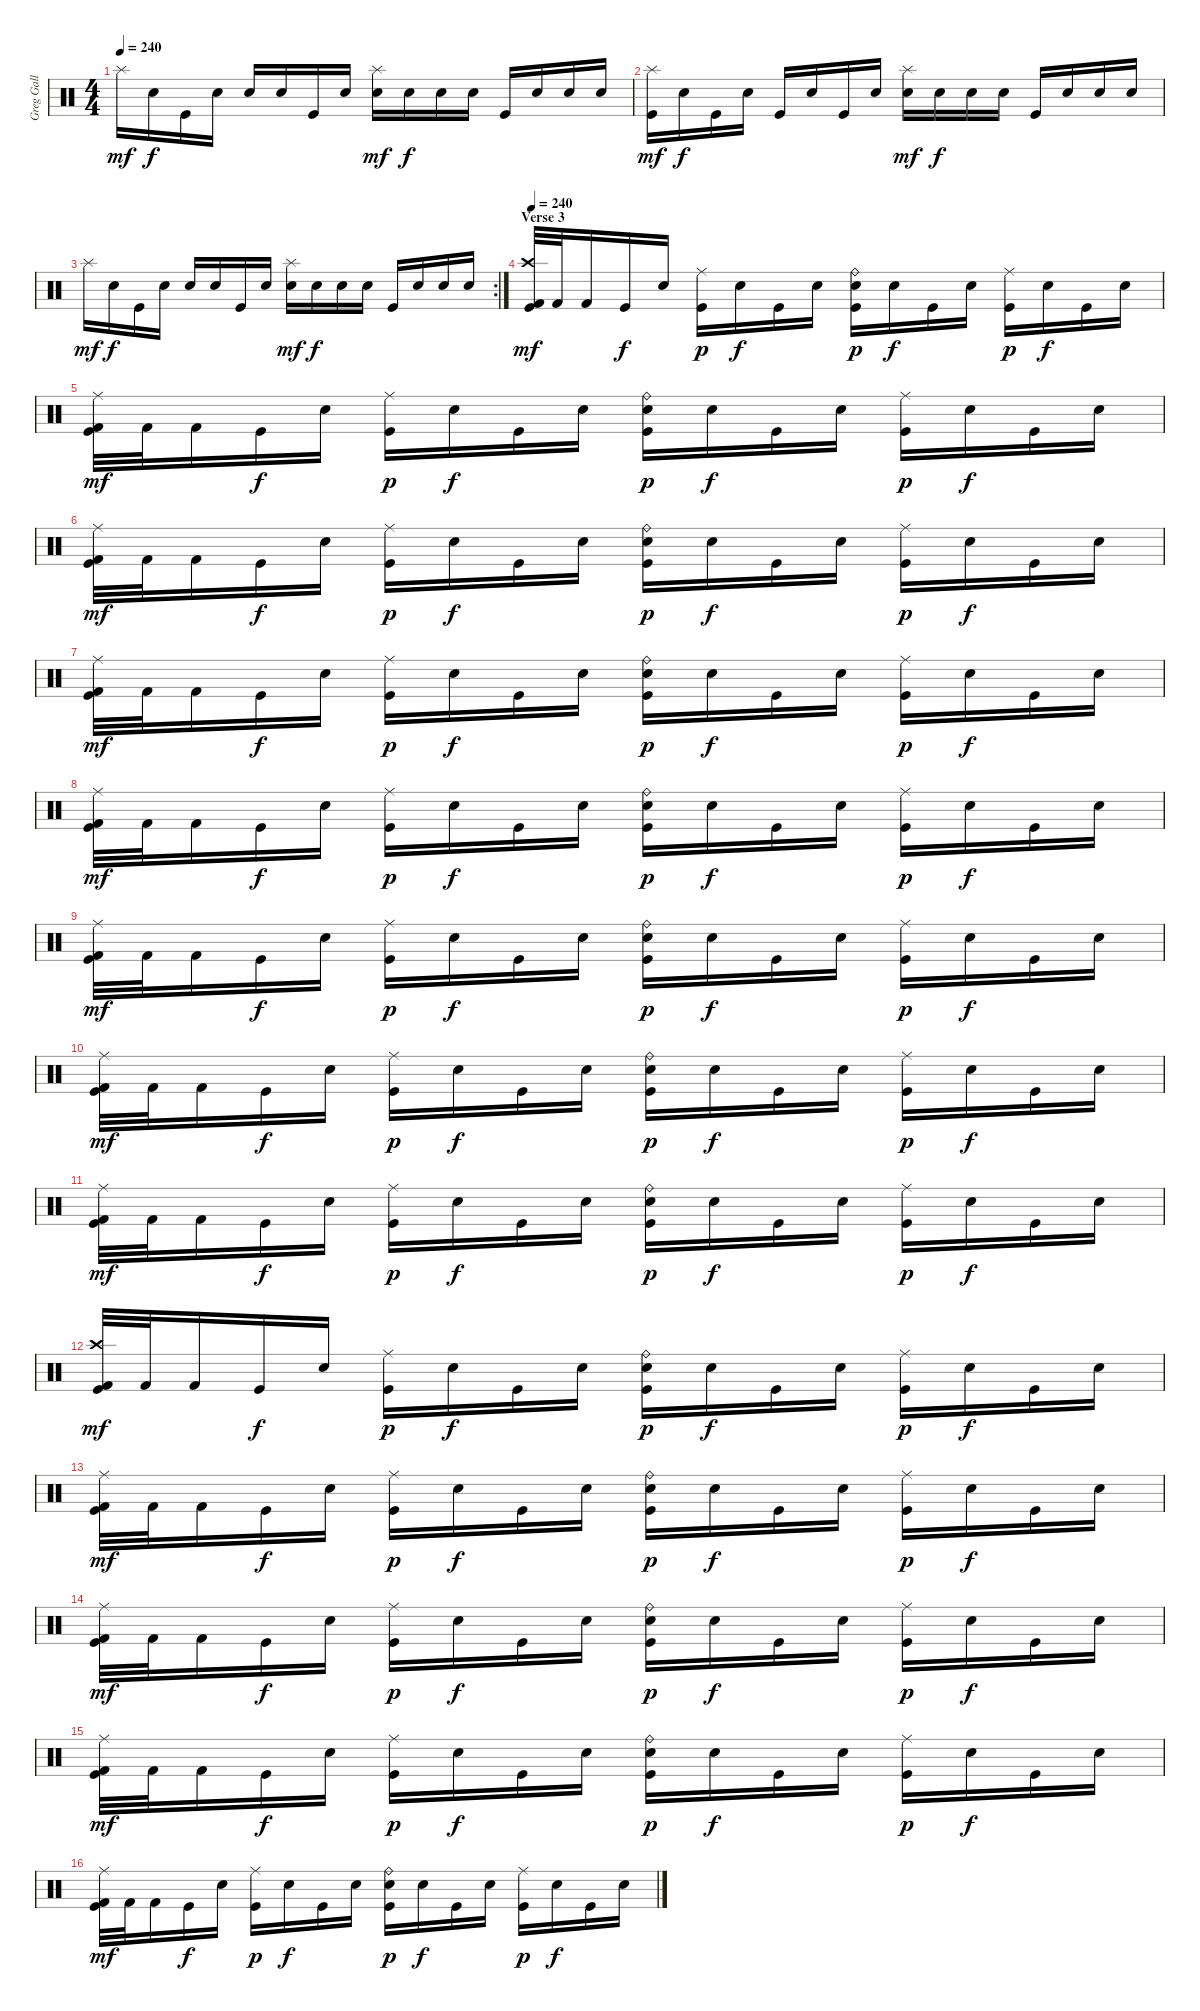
\track ("Greg Gall - Drums" "Greg Gall ") {instrument percussion}
\staff {score}
\articulation defaults
\ts (4 4)
\tempo 240
\clef neutral
\ks c "Splash (hit)".16{dy mf} "Snare (hit)".16{dy f} "Kick (hit)".16 "Snare (hit)".16 "Snare (hit)".16 "Snare (hit)".16 "Kick (hit)".16 "Snare (hit)".16
("Splash (hit)" "Electric Snare (hit)").16{dy mf} "Snare (hit)".16{dy f} "Snare (hit)".16 "Snare (hit)".16 "Kick (hit)".16 "Snare (hit)".16 "Snare (hit)".16 "Snare (hit)".16 |
("Splash (hit)" "Kick (hit)").16{dy mf} "Snare (hit)".16{dy f} "Kick (hit)".16 "Snare (hit)".16 "Kick (hit)".16 "Snare (hit)".16 "Kick (hit)".16 "Snare (hit)".16 ("Splash (hit)" "Electric Snare (hit)").16{dy mf} "Snare (hit)".16{dy f} "Snare (hit)".16 "Snare (hit)".16 "Kick (hit)".16 "Snare (hit)".16 "Snare (hit)".16 "Snare (hit)".16 |
\rc 2 "Splash (hit)".16{dy mf} "Snare (hit)".16{dy f} "Kick (hit)".16 "Snare (hit)".16 "Snare (hit)".16 "Snare (hit)".16 "Kick (hit)".16 "Snare (hit)".16
("Splash (hit)" "Electric Snare (hit)").16{dy mf} "Snare (hit)".16{dy f} "Snare (hit)".16 "Snare (hit)".16 "Kick (hit)".16 "Snare (hit)".16 "Snare (hit)".16 "Snare (hit)".16 |
\section ("" "Verse 3")
\tempo 240
("Crash high (hit)" "Kick (hit) 2" "Kick (hit)").32{dy mf volume 12 balance 8} "Kick (hit) 2".32 "Kick (hit) 2".16 "Kick (hit)".16{dy f} "Snare (hit)".16 ("Ride (middle)" "Kick (hit)").16{dy p} "Snare (hit)".16{dy f} "Kick (hit)".16 "Snare (hit)".16 ("Ride (bell)" "Electric Snare (hit)" "Kick (hit)").16{dy p} "Snare (hit)".16{dy f} "Kick (hit)".16 "Snare (hit)".16 ("Ride (middle)" "Kick (hit)").16{dy p} "Snare (hit)".16{dy f} "Kick (hit)".16 "Snare (hit)".16 |
("Ride (middle)" "Kick (hit) 2" "Kick (hit)").32{dy mf} "Kick (hit) 2".32 "Kick (hit) 2".16 "Kick (hit)".16{dy f} "Snare (hit)".16 ("Ride (middle)" "Kick (hit)").16{dy p} "Snare (hit)".16{dy f} "Kick (hit)".16 "Snare (hit)".16 ("Ride (bell)" "Electric Snare (hit)" "Kick (hit)").16{dy p} "Snare (hit)".16{dy f} "Kick (hit)".16 "Snare (hit)".16 ("Ride (middle)" "Kick (hit)").16{dy p} "Snare (hit)".16{dy f} "Kick (hit)".16 "Snare (hit)".16 |
("Ride (middle)" "Kick (hit) 2" "Kick (hit)").32{dy mf} "Kick (hit) 2".32 "Kick (hit) 2".16 "Kick (hit)".16{dy f} "Snare (hit)".16 ("Ride (middle)" "Kick (hit)").16{dy p} "Snare (hit)".16{dy f} "Kick (hit)".16 "Snare (hit)".16 ("Ride (bell)" "Electric Snare (hit)" "Kick (hit)").16{dy p} "Snare (hit)".16{dy f} "Kick (hit)".16 "Snare (hit)".16 ("Ride (middle)" "Kick (hit)").16{dy p} "Snare (hit)".16{dy f} "Kick (hit)".16 "Snare (hit)".16 |
("Ride (middle)" "Kick (hit) 2" "Kick (hit)").32{dy mf} "Kick (hit) 2".32 "Kick (hit) 2".16 "Kick (hit)".16{dy f} "Snare (hit)".16 ("Ride (middle)" "Kick (hit)").16{dy p} "Snare (hit)".16{dy f} "Kick (hit)".16 "Snare (hit)".16 ("Ride (bell)" "Electric Snare (hit)" "Kick (hit)").16{dy p} "Snare (hit)".16{dy f} "Kick (hit)".16 "Snare (hit)".16 ("Ride (middle)" "Kick (hit)").16{dy p} "Snare (hit)".16{dy f} "Kick (hit)".16 "Snare (hit)".16 |
("Ride (middle)" "Kick (hit) 2" "Kick (hit)").32{dy mf} "Kick (hit) 2".32 "Kick (hit) 2".16 "Kick (hit)".16{dy f} "Snare (hit)".16 ("Ride (middle)" "Kick (hit)").16{dy p} "Snare (hit)".16{dy f} "Kick (hit)".16 "Snare (hit)".16 ("Ride (bell)" "Electric Snare (hit)" "Kick (hit)").16{dy p} "Snare (hit)".16{dy f} "Kick (hit)".16 "Snare (hit)".16 ("Ride (middle)" "Kick (hit)").16{dy p} "Snare (hit)".16{dy f} "Kick (hit)".16 "Snare (hit)".16 |
("Ride (middle)" "Kick (hit) 2" "Kick (hit)").32{dy mf} "Kick (hit) 2".32 "Kick (hit) 2".16 "Kick (hit)".16{dy f} "Snare (hit)".16 ("Ride (middle)" "Kick (hit)").16{dy p} "Snare (hit)".16{dy f} "Kick (hit)".16 "Snare (hit)".16 ("Ride (bell)" "Electric Snare (hit)" "Kick (hit)").16{dy p} "Snare (hit)".16{dy f} "Kick (hit)".16 "Snare (hit)".16 ("Ride (middle)" "Kick (hit)").16{dy p} "Snare (hit)".16{dy f} "Kick (hit)".16 "Snare (hit)".16 |
("Ride (middle)" "Kick (hit) 2" "Kick (hit)").32{dy mf} "Kick (hit) 2".32 "Kick (hit) 2".16 "Kick (hit)".16{dy f} "Snare (hit)".16 ("Ride (middle)" "Kick (hit)").16{dy p} "Snare (hit)".16{dy f} "Kick (hit)".16 "Snare (hit)".16 ("Ride (bell)" "Electric Snare (hit)" "Kick (hit)").16{dy p} "Snare (hit)".16{dy f} "Kick (hit)".16 "Snare (hit)".16 ("Ride (middle)" "Kick (hit)").16{dy p} "Snare (hit)".16{dy f} "Kick (hit)".16 "Snare (hit)".16 |
("Ride (middle)" "Kick (hit) 2" "Kick (hit)").32{dy mf} "Kick (hit) 2".32 "Kick (hit) 2".16 "Kick (hit)".16{dy f} "Snare (hit)".16 ("Ride (middle)" "Kick (hit)").16{dy p} "Snare (hit)".16{dy f} "Kick (hit)".16 "Snare (hit)".16 ("Ride (bell)" "Electric Snare (hit)" "Kick (hit)").16{dy p} "Snare (hit)".16{dy f} "Kick (hit)".16 "Snare (hit)".16 ("Ride (middle)" "Kick (hit)").16{dy p} "Snare (hit)".16{dy f} "Kick (hit)".16 "Snare (hit)".16 |
("Crash high (hit)" "Kick (hit) 2" "Kick (hit)").32{dy mf} "Kick (hit) 2".32 "Kick (hit) 2".16 "Kick (hit)".16{dy f} "Snare (hit)".16 ("Ride (middle)" "Kick (hit)").16{dy p} "Snare (hit)".16{dy f} "Kick (hit)".16 "Snare (hit)".16 ("Ride (bell)" "Electric Snare (hit)" "Kick (hit)").16{dy p} "Snare (hit)".16{dy f} "Kick (hit)".16 "Snare (hit)".16 ("Ride (middle)" "Kick (hit)").16{dy p} "Snare (hit)".16{dy f} "Kick (hit)".16 "Snare (hit)".16 |
("Ride (middle)" "Kick (hit) 2" "Kick (hit)").32{dy mf} "Kick (hit) 2".32 "Kick (hit) 2".16 "Kick (hit)".16{dy f} "Snare (hit)".16 ("Ride (middle)" "Kick (hit)").16{dy p} "Snare (hit)".16{dy f} "Kick (hit)".16 "Snare (hit)".16 ("Ride (bell)" "Electric Snare (hit)" "Kick (hit)").16{dy p} "Snare (hit)".16{dy f} "Kick (hit)".16 "Snare (hit)".16 ("Ride (middle)" "Kick (hit)").16{dy p} "Snare (hit)".16{dy f} "Kick (hit)".16 "Snare (hit)".16 |
("Ride (middle)" "Kick (hit) 2" "Kick (hit)").32{dy mf} "Kick (hit) 2".32 "Kick (hit) 2".16 "Kick (hit)".16{dy f} "Snare (hit)".16 ("Ride (middle)" "Kick (hit)").16{dy p} "Snare (hit)".16{dy f} "Kick (hit)".16 "Snare (hit)".16 ("Ride (bell)" "Electric Snare (hit)" "Kick (hit)").16{dy p} "Snare (hit)".16{dy f} "Kick (hit)".16 "Snare (hit)".16 ("Ride (middle)" "Kick (hit)").16{dy p} "Snare (hit)".16{dy f} "Kick (hit)".16 "Snare (hit)".16 |
("Ride (middle)" "Kick (hit) 2" "Kick (hit)").32{dy mf} "Kick (hit) 2".32 "Kick (hit) 2".16 "Kick (hit)".16{dy f} "Snare (hit)".16 ("Ride (middle)" "Kick (hit)").16{dy p} "Snare (hit)".16{dy f} "Kick (hit)".16 "Snare (hit)".16 ("Ride (bell)" "Electric Snare (hit)" "Kick (hit)").16{dy p} "Snare (hit)".16{dy f} "Kick (hit)".16 "Snare (hit)".16 ("Ride (middle)" "Kick (hit)").16{dy p} "Snare (hit)".16{dy f} "Kick (hit)".16 "Snare (hit)".16 |
("Ride (middle)" "Kick (hit) 2" "Kick (hit)").32{dy mf} "Kick (hit) 2".32 "Kick (hit) 2".16 "Kick (hit)".16{dy f} "Snare (hit)".16 ("Ride (middle)" "Kick (hit)").16{dy p} "Snare (hit)".16{dy f} "Kick (hit)".16 "Snare (hit)".16 ("Ride (bell)" "Electric Snare (hit)" "Kick (hit)").16{dy p} "Snare (hit)".16{dy f} "Kick (hit)".16 "Snare (hit)".16 ("Ride (middle)" "Kick (hit)").16{dy p} "Snare (hit)".16{dy f} "Kick (hit)".16 "Snare (hit)".16
